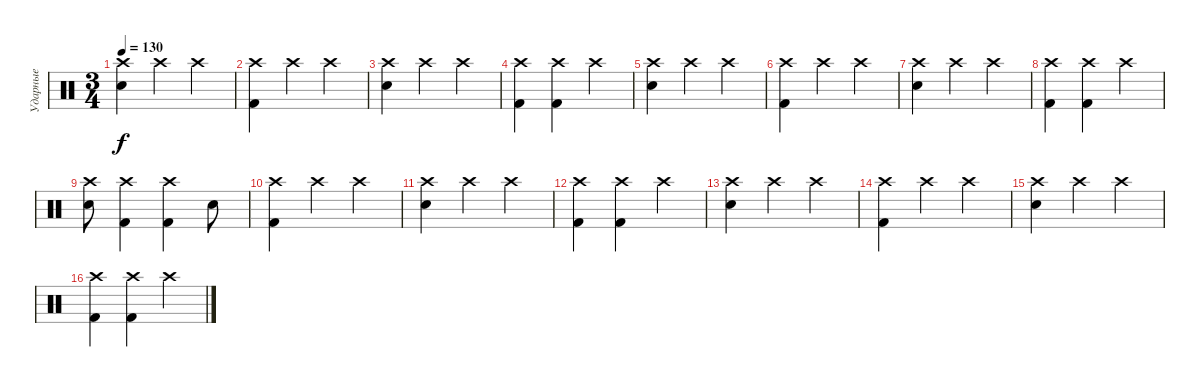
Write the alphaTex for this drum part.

\track ("Ударные" "Ударные") {instrument percussion}
\staff {score}
\articulation defaults
\ts (3 4)
\tempo 130
\clef neutral
\ks c
("Crash high (hit)" "Electric Snare (hit)").4{dy f} "Crash high (hit)".4 "Crash high (hit)".4 |
("Crash high (hit)" "Kick (hit) 2").4 "Crash high (hit)".4 "Crash high (hit)".4 |
("Crash high (hit)" "Electric Snare (hit)").4 "Crash high (hit)".4 "Crash high (hit)".4 |
("Crash high (hit)" "Kick (hit) 2").4 ("Crash high (hit)" "Kick (hit) 2").4 "Crash high (hit)".4 |
("Crash high (hit)" "Electric Snare (hit)").4 "Crash high (hit)".4 "Crash high (hit)".4 |
("Crash high (hit)" "Kick (hit) 2").4 "Crash high (hit)".4 "Crash high (hit)".4 |
("Crash high (hit)" "Electric Snare (hit)").4 "Crash high (hit)".4 "Crash high (hit)".4 |
("Crash high (hit)" "Kick (hit) 2").4 ("Crash high (hit)" "Kick (hit) 2").4 "Crash high (hit)".4 |
("Crash high (hit)" "Electric Snare (hit)").8 ("Crash high (hit)" "Kick (hit) 2").4 ("Crash high (hit)" "Kick (hit) 2").4 "Electric Snare (hit)".8 |
("Crash high (hit)" "Kick (hit) 2").4 "Crash high (hit)".4 "Crash high (hit)".4 |
("Crash high (hit)" "Electric Snare (hit)").4 "Crash high (hit)".4 "Crash high (hit)".4 |
("Crash high (hit)" "Kick (hit) 2").4 ("Crash high (hit)" "Kick (hit) 2").4 "Crash high (hit)".4 |
("Crash high (hit)" "Electric Snare (hit)").4 "Crash high (hit)".4 "Crash high (hit)".4 |
("Crash high (hit)" "Kick (hit) 2").4 "Crash high (hit)".4 "Crash high (hit)".4 |
("Crash high (hit)" "Electric Snare (hit)").4 "Crash high (hit)".4 "Crash high (hit)".4 |
("Crash high (hit)" "Kick (hit) 2").4 ("Crash high (hit)" "Kick (hit) 2").4 "Crash high (hit)".4
